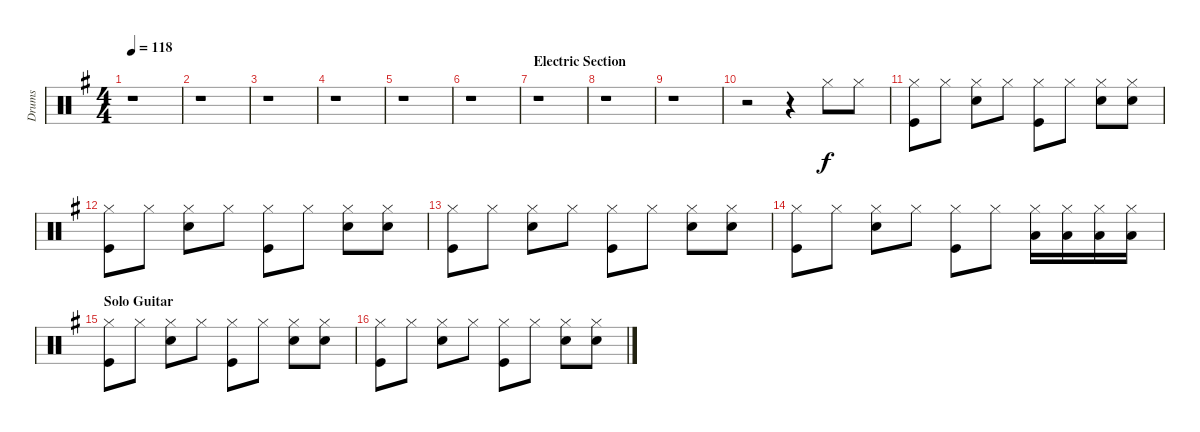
\track ("Drums" "Drums") {instrument percussion}
\staff {score}
\articulation defaults
\ts (4 4)
\tempo 118
\clef neutral
\ks g
r.1{dy f} |
r.1 |
r.1 |
r.1 |
r.1 |
r.1 |
\section ("" "Electric Section")
r.1 |
r.1 |
r.1 |
r.2 r.4 "Hi-Hat (closed)".8 "Hi-Hat (closed)".8 |
("Hi-Hat (closed)" "Kick (hit)").8 "Hi-Hat (closed)".8 ("Hi-Hat (closed)" "Snare (hit) 2").8 "Hi-Hat (closed)".8 ("Hi-Hat (closed)" "Kick (hit)").8 "Hi-Hat (closed)".8 ("Hi-Hat (closed)" "Snare (hit) 2").8 ("Hi-Hat (closed)" "Snare (hit) 2").8 |
("Hi-Hat (closed)" "Kick (hit)").8 "Hi-Hat (closed)".8 ("Hi-Hat (closed)" "Snare (hit) 2").8 "Hi-Hat (closed)".8 ("Hi-Hat (closed)" "Kick (hit)").8 "Hi-Hat (closed)".8 ("Hi-Hat (closed)" "Snare (hit) 2").8 ("Hi-Hat (closed)" "Snare (hit) 2").8 |
("Hi-Hat (closed)" "Kick (hit)").8 "Hi-Hat (closed)".8 ("Hi-Hat (closed)" "Snare (hit) 2").8 "Hi-Hat (closed)".8 ("Hi-Hat (closed)" "Kick (hit)").8 "Hi-Hat (closed)".8 ("Hi-Hat (closed)" "Snare (hit) 2").8 ("Hi-Hat (closed)" "Snare (hit) 2").8 |
("Hi-Hat (closed)" "Kick (hit)").8 "Hi-Hat (closed)".8 ("Hi-Hat (closed)" "Snare (hit) 2").8 "Hi-Hat (closed)".8 ("Hi-Hat (closed)" "Kick (hit)").8 "Hi-Hat (closed)".8 ("Hi-Hat (closed)" "Low Floor Tom (hit)").16 ("Hi-Hat (closed)" "Low Floor Tom (hit)").16 ("Hi-Hat (closed)" "Low Tom (hit)").16 ("Hi-Hat (closed)" "Low Tom (hit)").16 |
\section ("" "Solo Guitar")
("Hi-Hat (closed)" "Kick (hit)").8 "Hi-Hat (closed)".8 ("Hi-Hat (closed)" "Snare (hit) 2").8 "Hi-Hat (closed)".8 ("Hi-Hat (closed)" "Kick (hit)").8 "Hi-Hat (closed)".8 ("Hi-Hat (closed)" "Snare (hit) 2").8 ("Hi-Hat (closed)" "Snare (hit) 2").8 |
("Hi-Hat (closed)" "Kick (hit)").8 "Hi-Hat (closed)".8 ("Hi-Hat (closed)" "Snare (hit) 2").8 "Hi-Hat (closed)".8 ("Hi-Hat (closed)" "Kick (hit)").8 "Hi-Hat (closed)".8 ("Hi-Hat (closed)" "Snare (hit) 2").8 ("Hi-Hat (closed)" "Snare (hit) 2").8
